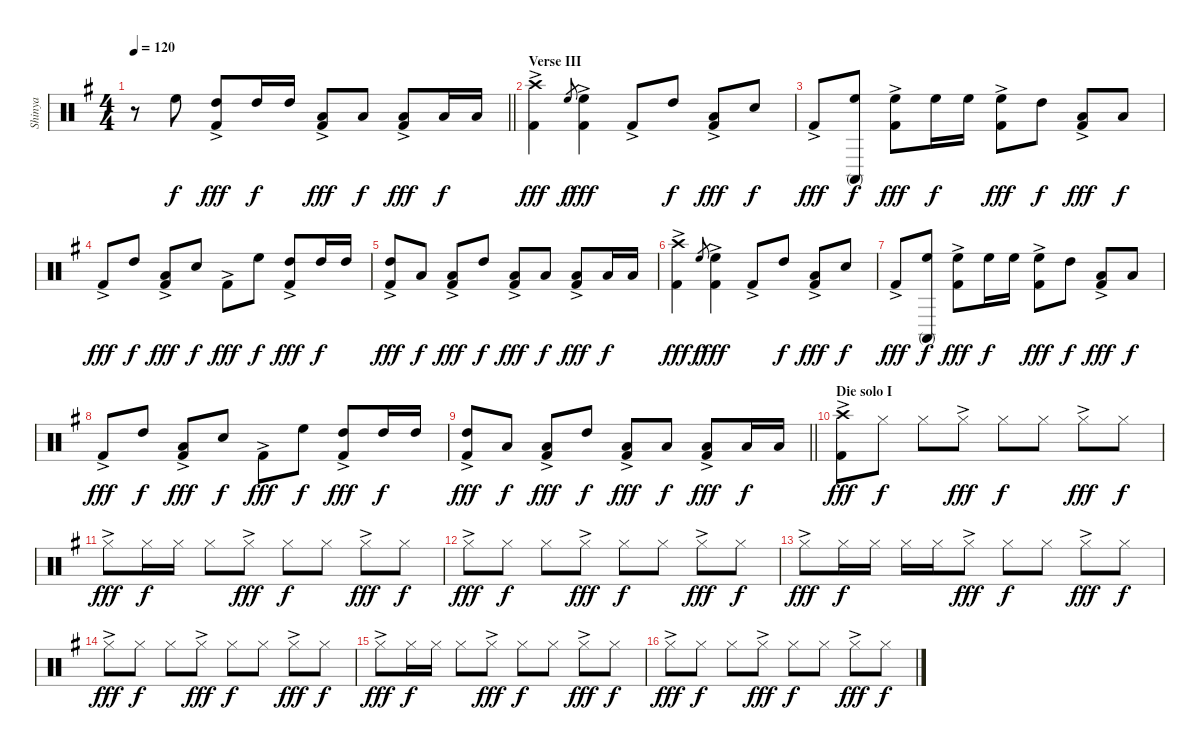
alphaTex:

\track ("Shinya" "Shinya") {instrument percussion}
\staff {score}
\articulation defaults
\ts (4 4)
\tempo 120
\clef neutral
\barLineRight lightlight
\ks g
r.8{dy fff} "High Floor Tom (hit)".8{dy f} ("High Tom (hit)" "Kick (hit) 2"{ac}).8{dy fff} "High Tom (hit)".16{dy f} "High Tom (hit)".16 ("Low Tom (hit)" "Kick (hit) 2"{ac}).8{dy fff} "Low Tom (hit)".8{dy f} ("Low Floor Tom (hit)" "Kick (hit) 2"{ac}).8{dy fff} "Low Floor Tom (hit)".16{dy f} "Low Floor Tom (hit)".16 |
\section ("" "Verse III")
("Crash high (hit)"{ac} "Kick (hit) 2").4{dy fff} "High Floor Tom (hit)".8{gr dy f} ("High Floor Tom (hit)" "Kick (hit) 2"{ac}).4{dy fff} "Kick (hit) 2"{ac}.8 "High Tom (hit)".8{dy f} ("Low Tom (hit)" "Kick (hit) 2"{ac}).8{dy fff} "Snare (hit) 2".8{dy f} |
"Kick (hit) 2"{ac}.8{dy fff} ("Conga high (mute)" "High Floor Tom (hit)").8{dy f} ("High Floor Tom (hit)" "Kick (hit) 2"{ac}).8{dy fff} "High Floor Tom (hit)".16{dy f} "High Floor Tom (hit)".16 ("High Floor Tom (hit)" "Kick (hit) 2"{ac}).8{dy fff} "High Tom (hit)".8{dy f} ("Low Tom (hit)" "Kick (hit) 2"{ac}).8{dy fff} "Low Floor Tom (hit)".8{dy f} |
"Kick (hit) 2"{ac}.8{dy fff} "High Tom (hit)".8{dy f} ("Low Tom (hit)" "Kick (hit) 2"{ac}).8{dy fff} "Snare (hit) 2".8{dy f} "Kick (hit) 2"{ac}.8{dy fff} "High Floor Tom (hit)".8{dy f} ("High Tom (hit)" "Kick (hit) 2"{ac}).8{dy fff} "High Tom (hit)".16{dy f} "High Tom (hit)".16 |
("High Tom (hit)" "Kick (hit) 2"{ac}).8{dy fff} "Low Tom (hit)".8{dy f} ("Low Floor Tom (hit)" "Kick (hit) 2"{ac}).8{dy fff} "High Tom (hit)".8{dy f} ("Low Tom (hit)" "Kick (hit) 2"{ac}).8{dy fff} "Low Floor Tom (hit)".8{dy f} ("Low Floor Tom (hit)" "Kick (hit) 2"{ac}).8{dy fff} "Low Floor Tom (hit)".16{dy f} "Low Floor Tom (hit)".16 |
("Crash high (hit)"{ac} "Kick (hit) 2").4{dy fff} "High Floor Tom (hit)".8{gr dy f} ("High Floor Tom (hit)" "Kick (hit) 2"{ac}).4{dy fff} "Kick (hit) 2"{ac}.8 "High Tom (hit)".8{dy f} ("Low Tom (hit)" "Kick (hit) 2"{ac}).8{dy fff} "Snare (hit) 2".8{dy f} |
"Kick (hit) 2"{ac}.8{dy fff} ("Conga high (mute)" "High Floor Tom (hit)").8{dy f} ("High Floor Tom (hit)" "Kick (hit) 2"{ac}).8{dy fff} "High Floor Tom (hit)".16{dy f} "High Floor Tom (hit)".16 ("High Floor Tom (hit)" "Kick (hit) 2"{ac}).8{dy fff} "High Tom (hit)".8{dy f} ("Low Tom (hit)" "Kick (hit) 2"{ac}).8{dy fff} "Low Floor Tom (hit)".8{dy f} |
"Kick (hit) 2"{ac}.8{dy fff} "High Tom (hit)".8{dy f} ("Low Tom (hit)" "Kick (hit) 2"{ac}).8{dy fff} "Snare (hit) 2".8{dy f} "Kick (hit) 2"{ac}.8{dy fff} "High Floor Tom (hit)".8{dy f} ("High Tom (hit)" "Kick (hit) 2"{ac}).8{dy fff} "High Tom (hit)".16{dy f} "High Tom (hit)".16 |
\barLineRight lightlight
("High Tom (hit)" "Kick (hit) 2"{ac}).8{dy fff} "Low Tom (hit)".8{dy f} ("Low Floor Tom (hit)" "Kick (hit) 2"{ac}).8{dy fff} "High Tom (hit)".8{dy f} ("Low Tom (hit)" "Kick (hit) 2"{ac}).8{dy fff} "Low Floor Tom (hit)".8{dy f} ("Low Floor Tom (hit)" "Kick (hit) 2"{ac}).8{dy fff} "Low Floor Tom (hit)".16{dy f} "Low Floor Tom (hit)".16 |
\section ("" "Die solo I")
("Crash high (hit)"{ac} "Kick (hit) 2").8{dy fff} "Hi-Hat (closed)".8{dy f} "Hi-Hat (closed)".8 "Hi-Hat (closed)"{ac}.8{dy fff} "Hi-Hat (closed)".8{dy f} "Hi-Hat (closed)".8 "Hi-Hat (closed)"{ac}.8{dy fff} "Hi-Hat (closed)".8{dy f} |
"Hi-Hat (closed)"{ac}.8{dy fff} "Hi-Hat (closed)".16{dy f} "Hi-Hat (closed)".16 "Hi-Hat (closed)".8 "Hi-Hat (closed)"{ac}.8{dy fff} "Hi-Hat (closed)".8{dy f} "Hi-Hat (closed)".8 "Hi-Hat (closed)"{ac}.8{dy fff} "Hi-Hat (closed)".8{dy f} |
"Hi-Hat (closed)"{ac}.8{dy fff} "Hi-Hat (closed)".8{dy f} "Hi-Hat (closed)".8 "Hi-Hat (closed)"{ac}.8{dy fff} "Hi-Hat (closed)".8{dy f} "Hi-Hat (closed)".8 "Hi-Hat (closed)"{ac}.8{dy fff} "Hi-Hat (closed)".8{dy f} |
"Hi-Hat (closed)"{ac}.8{dy fff} "Hi-Hat (closed)".16{dy f} "Hi-Hat (closed)".16 "Hi-Hat (closed)".16 "Hi-Hat (closed)".16 "Hi-Hat (closed)"{ac}.8{dy fff} "Hi-Hat (closed)".8{dy f} "Hi-Hat (closed)".8 "Hi-Hat (closed)"{ac}.8{dy fff} "Hi-Hat (closed)".8{dy f} |
"Hi-Hat (closed)"{ac}.8{dy fff} "Hi-Hat (closed)".8{dy f} "Hi-Hat (closed)".8 "Hi-Hat (closed)"{ac}.8{dy fff} "Hi-Hat (closed)".8{dy f} "Hi-Hat (closed)".8 "Hi-Hat (closed)"{ac}.8{dy fff} "Hi-Hat (closed)".8{dy f} |
"Hi-Hat (closed)"{ac}.8{dy fff} "Hi-Hat (closed)".16{dy f} "Hi-Hat (closed)".16 "Hi-Hat (closed)".8 "Hi-Hat (closed)"{ac}.8{dy fff} "Hi-Hat (closed)".8{dy f} "Hi-Hat (closed)".8 "Hi-Hat (closed)"{ac}.8{dy fff} "Hi-Hat (closed)".8{dy f} |
"Hi-Hat (closed)"{ac}.8{dy fff} "Hi-Hat (closed)".8{dy f} "Hi-Hat (closed)".8 "Hi-Hat (closed)"{ac}.8{dy fff} "Hi-Hat (closed)".8{dy f} "Hi-Hat (closed)".8 "Hi-Hat (closed)"{ac}.8{dy fff} "Hi-Hat (closed)".8{dy f}
